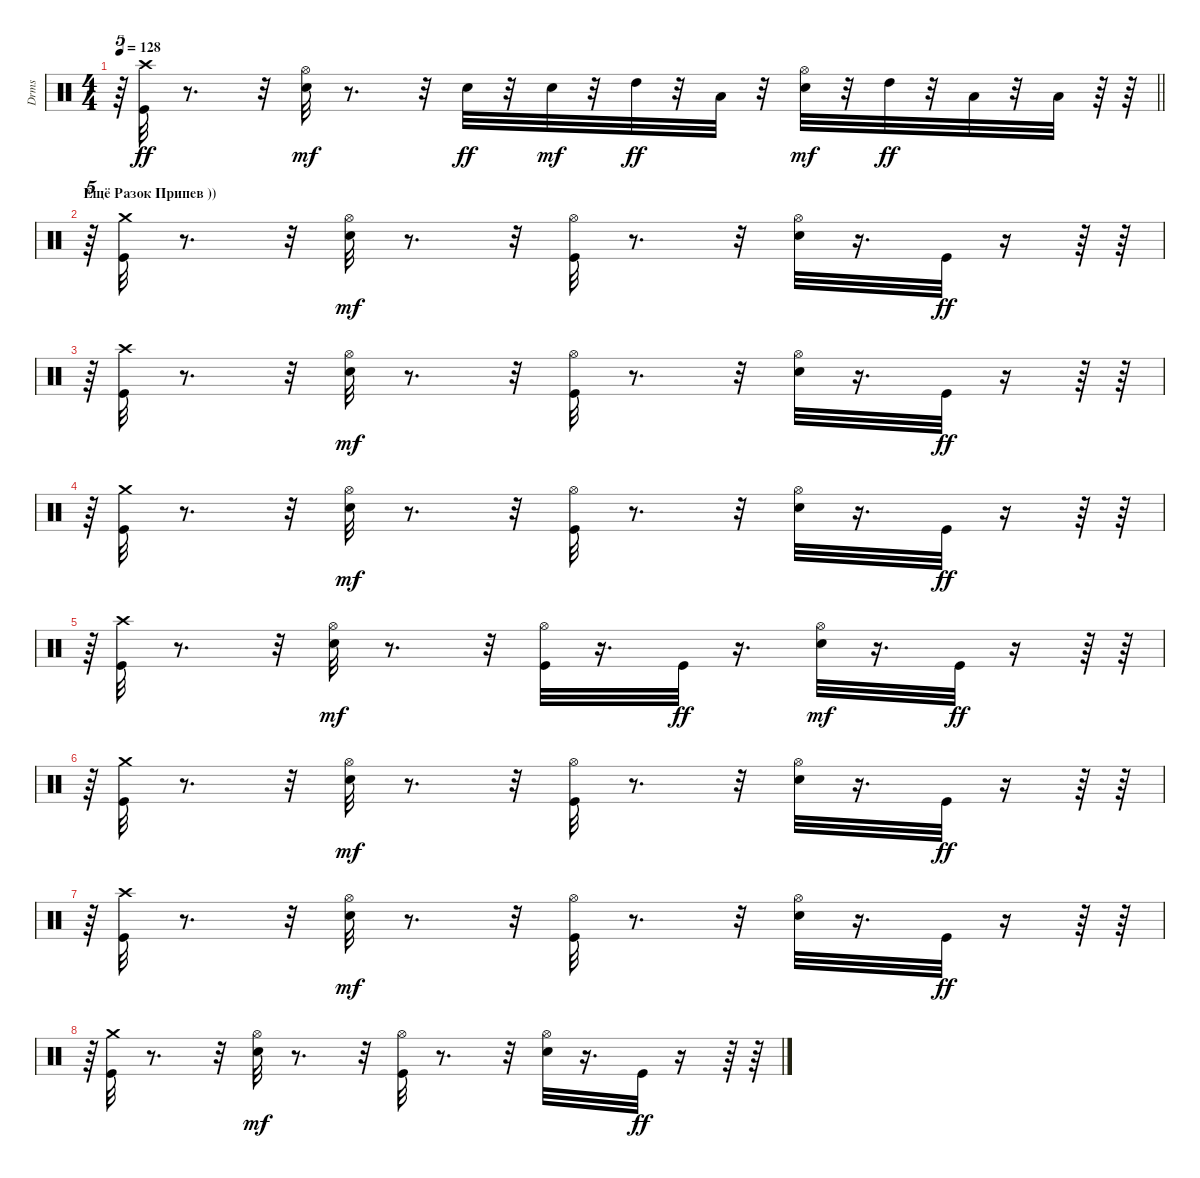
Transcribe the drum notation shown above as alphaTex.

\track ("Drms" "Drms") {instrument percussion}
\staff {score}
\articulation defaults
\ts (4 4)
\tempo 128
\clef neutral
\barLineRight lightlight
\ks c
r.64{tu (5 4) dy ff} ("Kick (hit)" "Crash high (hit)").32 r.8{d} r.32 ("Snare (hit) 2" "Hi-Hat (open)").32{dy mf} r.8{d} r.32 "Snare (hit) 2".32{dy ff} r.32 "Snare (hit) 2".32{dy mf} r.32 "High Tom (hit)".32{dy ff} r.32 "Low Tom (hit)".32 r.32 ("Snare (hit) 2" "Hi-Hat (open)").32{dy mf} r.32 "High Tom (hit)".32{dy ff} r.32 "Low Tom (hit)".32 r.32 "Low Floor Tom (hit)".32 r.64 r.64 |
\section ("" "Ещё Разок Припев ))")
r.64{tu (5 4)} ("Kick (hit)" "Crash medium (hit)").32 r.8{d} r.32 ("Snare (hit) 2" "Hi-Hat (open)").32{dy mf} r.8{d} r.32 ("Kick (hit)" "Hi-Hat (open)").32 r.8{d} r.32 ("Snare (hit) 2" "Hi-Hat (open)").32 r.16{d} "Kick (hit)".32{dy ff} r.16 r.64 r.64 |
r.64{tu (5 4)} ("Kick (hit)" "Crash high (hit)").32 r.8{d} r.32 ("Snare (hit) 2" "Hi-Hat (open)").32{dy mf} r.8{d} r.32 ("Kick (hit)" "Hi-Hat (open)").32 r.8{d} r.32 ("Snare (hit) 2" "Hi-Hat (open)").32 r.16{d} "Kick (hit)".32{dy ff} r.16 r.64 r.64 |
r.64{tu (5 4)} ("Kick (hit)" "Crash medium (hit)").32 r.8{d} r.32 ("Snare (hit) 2" "Hi-Hat (open)").32{dy mf} r.8{d} r.32 ("Kick (hit)" "Hi-Hat (open)").32 r.8{d} r.32 ("Snare (hit) 2" "Hi-Hat (open)").32 r.16{d} "Kick (hit)".32{dy ff} r.16 r.64 r.64 |
r.64{tu (5 4)} ("Kick (hit)" "Crash high (hit)").32 r.8{d} r.32 ("Snare (hit) 2" "Hi-Hat (open)").32{dy mf} r.8{d} r.32 ("Kick (hit)" "Hi-Hat (open)").32 r.16{d} "Kick (hit)".32{dy ff} r.16{d} ("Snare (hit) 2" "Hi-Hat (open)").32{dy mf} r.16{d} "Kick (hit)".32{dy ff} r.16 r.64 r.64 |
r.64{tu (5 4)} ("Kick (hit)" "Crash medium (hit)").32 r.8{d} r.32 ("Snare (hit) 2" "Hi-Hat (open)").32{dy mf} r.8{d} r.32 ("Kick (hit)" "Hi-Hat (open)").32 r.8{d} r.32 ("Snare (hit) 2" "Hi-Hat (open)").32 r.16{d} "Kick (hit)".32{dy ff} r.16 r.64 r.64 |
r.64{tu (5 4)} ("Kick (hit)" "Crash high (hit)").32 r.8{d} r.32 ("Snare (hit) 2" "Hi-Hat (open)").32{dy mf} r.8{d} r.32 ("Kick (hit)" "Hi-Hat (open)").32 r.8{d} r.32 ("Snare (hit) 2" "Hi-Hat (open)").32 r.16{d} "Kick (hit)".32{dy ff} r.16 r.64 r.64 |
r.64{tu (5 4)} ("Kick (hit)" "Crash medium (hit)").32 r.8{d} r.32 ("Snare (hit) 2" "Hi-Hat (open)").32{dy mf} r.8{d} r.32 ("Kick (hit)" "Hi-Hat (open)").32 r.8{d} r.32 ("Snare (hit) 2" "Hi-Hat (open)").32 r.16{d} "Kick (hit)".32{dy ff} r.16 r.64 r.64
